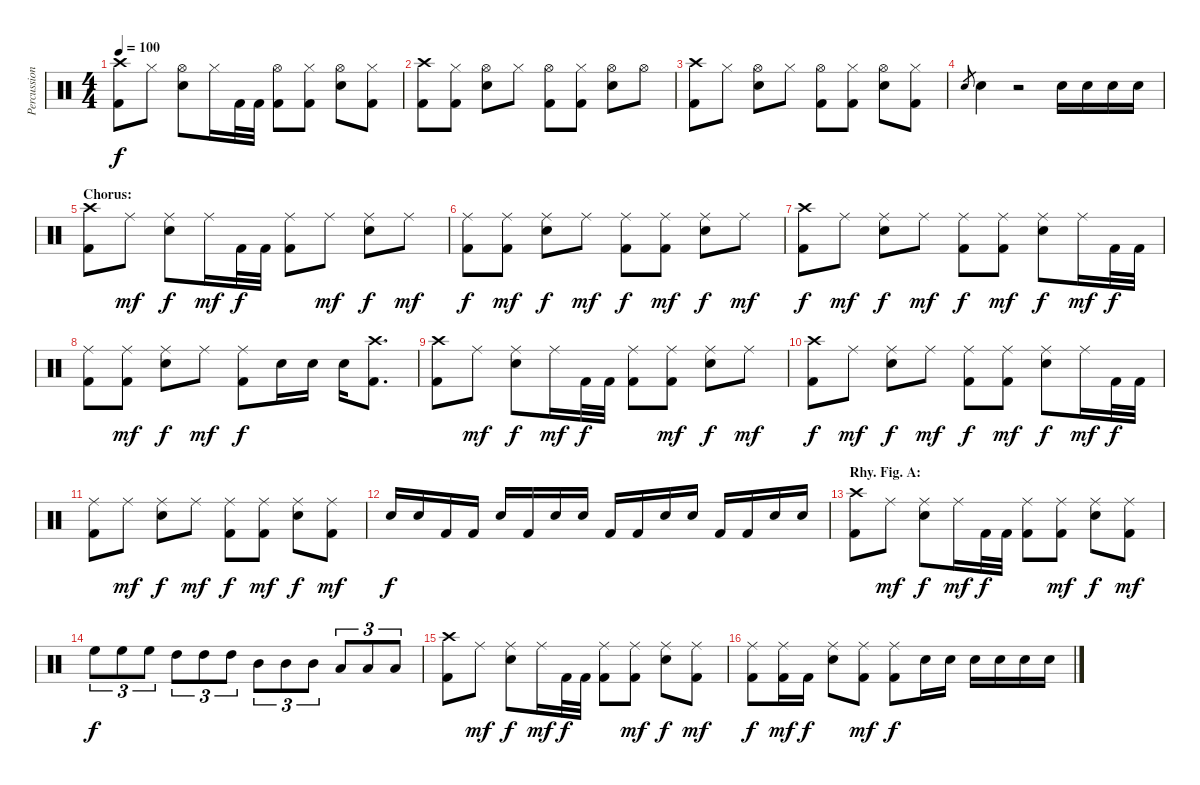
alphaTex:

\track ("Percussion" "Percussion") {instrument percussion}
\staff {score}
\articulation defaults
\ts (4 4)
\tempo 100
\clef neutral
\ks c
("Crash high (hit)" "Kick (hit) 2").8{dy f} "Hi-Hat (closed)".8 ("Hi-Hat (open)" "Electric Snare (hit)").8 "Hi-Hat (closed)".16 "Kick (hit) 2".32 "Kick (hit) 2".32 ("Hi-Hat (open)" "Kick (hit) 2").8 ("Hi-Hat (closed)" "Kick (hit) 2").8 ("Hi-Hat (open)" "Electric Snare (hit)").8 ("Hi-Hat (closed)" "Kick (hit) 2").8 |
("Crash high (hit)" "Kick (hit) 2").8 ("Hi-Hat (closed)" "Kick (hit) 2").8 ("Hi-Hat (open)" "Electric Snare (hit)").8 "Hi-Hat (closed)".8 ("Hi-Hat (open)" "Kick (hit) 2").8 ("Hi-Hat (closed)" "Kick (hit) 2").8 ("Hi-Hat (open)" "Electric Snare (hit)").8 "Hi-Hat (open)".8 |
("Crash high (hit)" "Kick (hit) 2").8 "Hi-Hat (closed)".8 ("Hi-Hat (open)" "Electric Snare (hit)").8 "Hi-Hat (closed)".8 ("Hi-Hat (open)" "Kick (hit) 2").8 ("Hi-Hat (closed)" "Kick (hit) 2").8 ("Hi-Hat (open)" "Electric Snare (hit)").8 ("Hi-Hat (closed)" "Kick (hit) 2").8 |
"Electric Snare (hit)".8{gr} "Electric Snare (hit)".4 r.2 "Electric Snare (hit)".16 "Electric Snare (hit)".16 "Electric Snare (hit)".16 "Electric Snare (hit)".16 |
\section ("" "Chorus:")
("Crash high (hit)" "Kick (hit) 2").8 "Ride (middle)".8{dy mf} ("Ride (middle)" "Electric Snare (hit)").8{dy f} "Ride (middle)".16{dy mf} "Kick (hit) 2".32{dy f} "Kick (hit) 2".32 ("Ride (middle)" "Kick (hit) 2").8 "Ride (middle)".8{dy mf} ("Ride (middle)" "Electric Snare (hit)").8{dy f} "Ride (middle)".8{dy mf} |
("Ride (middle)" "Kick (hit) 2").8{dy f} ("Ride (middle)" "Kick (hit) 2").8{dy mf} ("Ride (middle)" "Electric Snare (hit)").8{dy f} "Ride (middle)".8{dy mf} ("Ride (middle)" "Kick (hit) 2").8{dy f} ("Ride (middle)" "Kick (hit) 2").8{dy mf} ("Ride (middle)" "Electric Snare (hit)").8{dy f} "Ride (middle)".8{dy mf} |
("Crash high (hit)" "Kick (hit) 2").8{dy f} "Ride (middle)".8{dy mf} ("Ride (middle)" "Electric Snare (hit)").8{dy f} "Ride (middle)".8{dy mf} ("Ride (middle)" "Kick (hit) 2").8{dy f} ("Ride (middle)" "Kick (hit) 2").8{dy mf} ("Ride (middle)" "Electric Snare (hit)").8{dy f} "Ride (middle)".16{dy mf} "Kick (hit) 2".32{dy f} "Kick (hit) 2".32 |
("Ride (middle)" "Kick (hit) 2").8 ("Ride (middle)" "Kick (hit) 2").8{dy mf} ("Ride (middle)" "Electric Snare (hit)").8{dy f} "Ride (middle)".8{dy mf} ("Ride (middle)" "Kick (hit) 2").8{dy f} "Electric Snare (hit)".16 "Electric Snare (hit)".16 "Electric Snare (hit)".16 ("Crash high (hit)" "Kick (hit) 2").8{d} |
("Crash high (hit)" "Kick (hit) 2").8 "Ride (middle)".8{dy mf} ("Ride (middle)" "Electric Snare (hit)").8{dy f} "Ride (middle)".16{dy mf} "Kick (hit) 2".32{dy f} "Kick (hit) 2".32 ("Ride (middle)" "Kick (hit) 2").8 ("Ride (middle)" "Kick (hit) 2").8{dy mf} ("Ride (middle)" "Electric Snare (hit)").8{dy f} "Ride (middle)".8{dy mf} |
("Crash high (hit)" "Kick (hit) 2").8{dy f} "Ride (middle)".8{dy mf} ("Ride (middle)" "Electric Snare (hit)").8{dy f} "Ride (middle)".8{dy mf} ("Ride (middle)" "Kick (hit) 2").8{dy f} ("Ride (middle)" "Kick (hit) 2").8{dy mf} ("Ride (middle)" "Electric Snare (hit)").8{dy f} "Ride (middle)".16{dy mf} "Kick (hit) 2".32{dy f} "Kick (hit) 2".32 |
("Ride (middle)" "Kick (hit) 2").8 "Ride (middle)".8{dy mf} ("Ride (middle)" "Electric Snare (hit)").8{dy f} "Ride (middle)".8{dy mf} ("Ride (middle)" "Kick (hit) 2").8{dy f} ("Ride (middle)" "Kick (hit) 2").8{dy mf} ("Ride (middle)" "Electric Snare (hit)").8{dy f} ("Ride (middle)" "Kick (hit) 2").8{dy mf} |
"Electric Snare (hit)".16{dy f} "Electric Snare (hit)".16 "Kick (hit) 2".16 "Kick (hit) 2".16 "Electric Snare (hit)".16 "Kick (hit) 2".16 "Electric Snare (hit)".16 "Electric Snare (hit)".16 "Kick (hit) 2".16 "Kick (hit) 2".16 "Electric Snare (hit)".16 "Electric Snare (hit)".16 "Kick (hit) 2".16 "Kick (hit) 2".16 "Electric Snare (hit)".16 "Electric Snare (hit)".16 |
\section ("" "Rhy. Fig. A:")
("Crash high (hit)" "Kick (hit) 2").8 "Ride (middle)".8{dy mf} ("Ride (middle)" "Electric Snare (hit)").8{dy f} "Ride (middle)".16{dy mf} "Kick (hit) 2".32{dy f} "Kick (hit) 2".32 ("Ride (middle)" "Kick (hit) 2").8 ("Ride (middle)" "Kick (hit) 2").8{dy mf} ("Ride (middle)" "Electric Snare (hit)").8{dy f} ("Ride (middle)" "Kick (hit) 2").8{dy mf} |
"High Floor Tom (hit)".8{tu (3 2) dy f} "High Floor Tom (hit)".8{tu (3 2)} "High Floor Tom (hit)".8{tu (3 2)} "High Tom (hit)".8{tu (3 2)} "High Tom (hit)".8{tu (3 2)} "High Tom (hit)".8{tu (3 2)} "Mid Tom (hit)".8{tu (3 2)} "Mid Tom (hit)".8{tu (3 2)} "Mid Tom (hit)".8{tu (3 2)} "Low Tom (hit)".8{tu (3 2)} "Low Tom (hit)".8{tu (3 2)} "Low Tom (hit)".8{tu (3 2)} |
("Crash high (hit)" "Kick (hit) 2").8 "Ride (middle)".8{dy mf} ("Ride (middle)" "Electric Snare (hit)").8{dy f} "Ride (middle)".16{dy mf} "Kick (hit) 2".32{dy f} "Kick (hit) 2".32 ("Ride (middle)" "Kick (hit) 2").8 ("Ride (middle)" "Kick (hit) 2").8{dy mf} ("Ride (middle)" "Electric Snare (hit)").8{dy f} ("Ride (middle)" "Kick (hit) 2").8{dy mf} |
("Ride (middle)" "Kick (hit) 2").8{dy f} ("Ride (middle)" "Kick (hit) 2").16{dy mf} "Kick (hit) 2".16{dy f} ("Ride (middle)" "Electric Snare (hit)").8 ("Ride (middle)" "Kick (hit) 2").8{dy mf} ("Ride (middle)" "Kick (hit) 2").8{dy f} "Electric Snare (hit)".16 "Electric Snare (hit)".16 "Electric Snare (hit)".16 "Electric Snare (hit)".16 "Electric Snare (hit)".16 "Electric Snare (hit)".16
